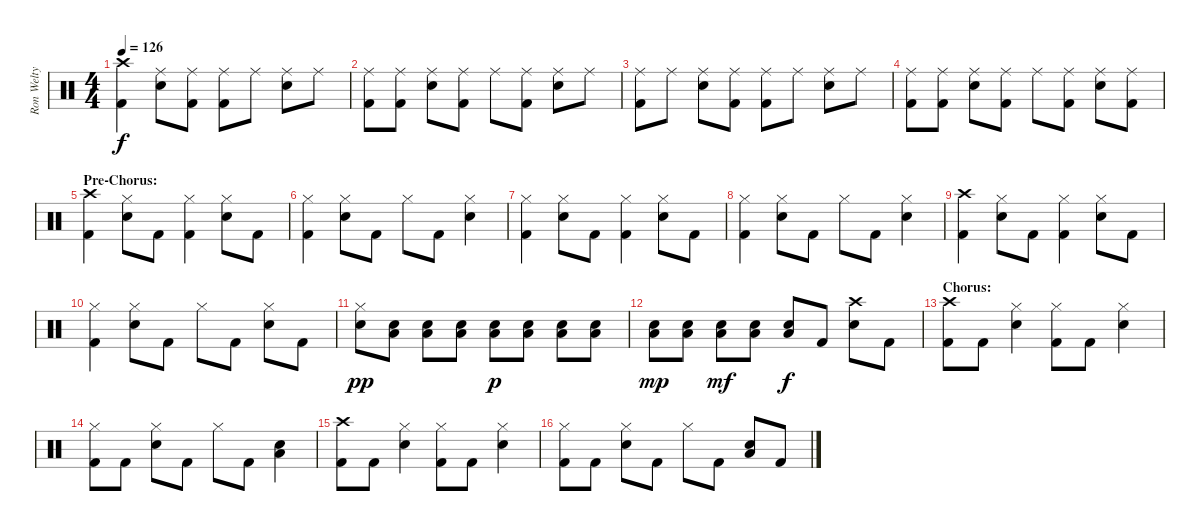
\track ("Ron Welty - Drums" "Ron Welty ") {instrument percussion}
\staff {score}
\articulation defaults
\ts (4 4)
\tempo 126
\clef neutral
\ks c
("Crash high (hit)" "Kick (hit) 2").4{dy f} ("Ride (middle)" "Snare (hit) 2").8 ("Ride (middle)" "Kick (hit) 2").8 ("Ride (middle)" "Kick (hit) 2").8 "Ride (middle)".8 ("Ride (middle)" "Snare (hit) 2").8 "Ride (middle)".8 |
("Ride (middle)" "Kick (hit) 2").8 ("Ride (middle)" "Kick (hit) 2").8 ("Ride (middle)" "Snare (hit) 2").8 ("Ride (middle)" "Kick (hit) 2").8 "Ride (middle)".8 ("Ride (middle)" "Kick (hit) 2").8 ("Ride (middle)" "Snare (hit) 2").8 "Ride (middle)".8 |
("Ride (middle)" "Kick (hit) 2").8 "Ride (middle)".8 ("Ride (middle)" "Snare (hit) 2").8 ("Ride (middle)" "Kick (hit) 2").8 ("Ride (middle)" "Kick (hit) 2").8 "Ride (middle)".8 ("Ride (middle)" "Snare (hit) 2").8 "Ride (middle)".8 |
("Ride (middle)" "Kick (hit) 2").8 ("Ride (middle)" "Kick (hit) 2").8 ("Ride (middle)" "Snare (hit) 2").8 ("Ride (middle)" "Kick (hit) 2").8 "Ride (middle)".8 ("Ride (middle)" "Kick (hit) 2").8 ("Ride (middle)" "Snare (hit) 2").8 ("Ride (middle)" "Kick (hit) 2").8 |
\section ("" "Pre-Chorus:")
("Crash high (hit)" "Kick (hit) 2").4 ("Hi-Hat (closed)" "Snare (hit) 2").8 "Kick (hit) 2".8 ("Hi-Hat (closed)" "Kick (hit) 2").4 ("Hi-Hat (closed)" "Snare (hit) 2").8 "Kick (hit) 2".8 |
("Hi-Hat (closed)" "Kick (hit) 2").4 ("Hi-Hat (closed)" "Snare (hit) 2").8 "Kick (hit) 2".8 "Hi-Hat (closed)".8 "Kick (hit) 2".8 ("Hi-Hat (closed)" "Snare (hit) 2").4 |
("Hi-Hat (closed)" "Kick (hit) 2").4 ("Hi-Hat (closed)" "Snare (hit) 2").8 "Kick (hit) 2".8 ("Hi-Hat (closed)" "Kick (hit) 2").4 ("Hi-Hat (closed)" "Snare (hit) 2").8 "Kick (hit) 2".8 |
("Hi-Hat (closed)" "Kick (hit) 2").4 ("Hi-Hat (closed)" "Snare (hit) 2").8 "Kick (hit) 2".8 "Hi-Hat (closed)".8 "Kick (hit) 2".8 ("Hi-Hat (closed)" "Snare (hit) 2").4 |
("Crash high (hit)" "Kick (hit) 2").4 ("Hi-Hat (closed)" "Snare (hit) 2").8 "Kick (hit) 2".8 ("Hi-Hat (closed)" "Kick (hit) 2").4 ("Hi-Hat (closed)" "Snare (hit) 2").8 "Kick (hit) 2".8 |
("Hi-Hat (closed)" "Kick (hit) 2").4 ("Hi-Hat (closed)" "Snare (hit) 2").8 "Kick (hit) 2".8 "Hi-Hat (closed)".8 "Kick (hit) 2".8 ("Hi-Hat (closed)" "Snare (hit) 2").8 "Kick (hit) 2".8 |
("Hi-Hat (closed)" "Snare (hit) 2").8{dy pp} ("Snare (hit) 2" "Low Floor Tom (hit)").8 ("Snare (hit) 2" "Low Floor Tom (hit)").8 ("Snare (hit) 2" "Low Floor Tom (hit)").8 ("Snare (hit) 2" "Low Floor Tom (hit)").8{dy p} ("Snare (hit) 2" "Low Floor Tom (hit)").8 ("Snare (hit) 2" "Low Floor Tom (hit)").8 ("Snare (hit) 2" "Low Floor Tom (hit)").8 |
("Snare (hit) 2" "Low Floor Tom (hit)").8{dy mp} ("Snare (hit) 2" "Low Floor Tom (hit)").8 ("Snare (hit) 2" "Low Floor Tom (hit)").8{dy mf} ("Snare (hit) 2" "Low Floor Tom (hit)").8 ("Snare (hit) 2" "Low Floor Tom (hit)").8{dy f} "Kick (hit) 2".8 ("Crash high (hit)" "Snare (hit) 2").8 "Kick (hit) 2".8 |
\section ("" "Chorus:")
("Crash high (hit)" "Kick (hit) 2").8 "Kick (hit) 2".8 ("Hi-Hat (closed)" "Snare (hit) 2").4 ("Hi-Hat (closed)" "Kick (hit) 2").8 "Kick (hit) 2".8 ("Hi-Hat (closed)" "Snare (hit) 2").4 |
("Hi-Hat (closed)" "Kick (hit) 2").8 "Kick (hit) 2".8 ("Hi-Hat (closed)" "Snare (hit) 2").8 "Kick (hit) 2".8 "Hi-Hat (closed)".8 "Kick (hit) 2".8 ("Snare (hit) 2" "Low Floor Tom (hit)").4 |
("Crash high (hit)" "Kick (hit) 2").8 "Kick (hit) 2".8 ("Hi-Hat (closed)" "Snare (hit) 2").4 ("Hi-Hat (closed)" "Kick (hit) 2").8 "Kick (hit) 2".8 ("Hi-Hat (closed)" "Snare (hit) 2").4 |
("Hi-Hat (closed)" "Kick (hit) 2").8 "Kick (hit) 2".8 ("Hi-Hat (closed)" "Snare (hit) 2").8 "Kick (hit) 2".8 "Hi-Hat (closed)".8 "Kick (hit) 2".8 ("Snare (hit) 2" "Low Floor Tom (hit)").8 "Kick (hit) 2".8
